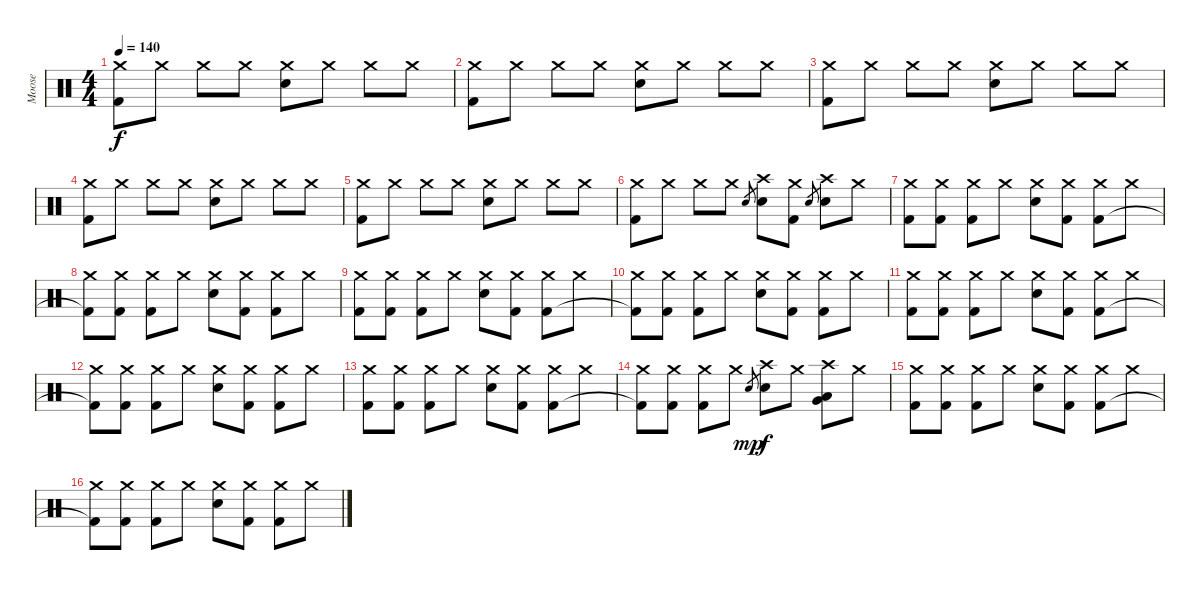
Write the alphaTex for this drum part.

\track ("Moose" "Moose") {instrument percussion}
\staff {score}
\articulation defaults
\ts (4 4)
\tempo 140
\clef neutral
\ks c
("Crash medium (hit)" "Kick (hit) 2").8{dy f} "Crash medium (hit)".8 "Crash medium (hit)".8 "Crash medium (hit)".8 ("Crash medium (hit)" "Snare (hit) 2").8 "Crash medium (hit)".8 "Crash medium (hit)".8 "Crash medium (hit)".8 |
("Crash medium (hit)" "Kick (hit) 2").8 "Crash medium (hit)".8 "Crash medium (hit)".8 "Crash medium (hit)".8 ("Crash medium (hit)" "Snare (hit) 2").8 "Crash medium (hit)".8 "Crash medium (hit)".8 "Crash medium (hit)".8 |
("Crash medium (hit)" "Kick (hit) 2").8 "Crash medium (hit)".8 "Crash medium (hit)".8 "Crash medium (hit)".8 ("Crash medium (hit)" "Snare (hit) 2").8 "Crash medium (hit)".8 "Crash medium (hit)".8 "Crash medium (hit)".8 |
("Crash medium (hit)" "Kick (hit) 2").8 "Crash medium (hit)".8 "Crash medium (hit)".8 "Crash medium (hit)".8 ("Crash medium (hit)" "Snare (hit) 2").8 "Crash medium (hit)".8 "Crash medium (hit)".8 "Crash medium (hit)".8 |
("Crash medium (hit)" "Kick (hit) 2").8 "Crash medium (hit)".8 "Crash medium (hit)".8 "Crash medium (hit)".8 ("Crash medium (hit)" "Snare (hit) 2").8 "Crash medium (hit)".8 "Crash medium (hit)".8 "Crash medium (hit)".8 |
("Crash medium (hit)" "Kick (hit) 2").8 "Crash medium (hit)".8 "Crash medium (hit)".8 "Crash medium (hit)".8 "Snare (hit) 2".8{gr} ("Crash high (hit)" "Snare (hit) 2").8 ("Crash medium (hit)" "Kick (hit) 2").8 "Snare (hit) 2".8{gr} ("Crash high (hit)" "Snare (hit) 2").8 "Crash medium (hit)".8 |
("Crash medium (hit)" "Kick (hit) 2").8 ("Crash medium (hit)" "Kick (hit) 2").8 ("Crash medium (hit)" "Kick (hit) 2").8 "Crash medium (hit)".8 ("Crash medium (hit)" "Snare (hit) 2").8 ("Crash medium (hit)" "Kick (hit) 2").8 ("Crash medium (hit)" "Kick (hit) 2").8 "Crash medium (hit)".8 |
("Crash medium (hit)" "Kick (hit) 2"{t}).8 ("Crash medium (hit)" "Kick (hit) 2").8 ("Crash medium (hit)" "Kick (hit) 2").8 "Crash medium (hit)".8 ("Crash medium (hit)" "Snare (hit) 2").8 ("Crash medium (hit)" "Kick (hit) 2").8 ("Crash medium (hit)" "Kick (hit) 2").8 "Crash medium (hit)".8 |
("Crash medium (hit)" "Kick (hit) 2").8 ("Crash medium (hit)" "Kick (hit) 2").8 ("Crash medium (hit)" "Kick (hit) 2").8 "Crash medium (hit)".8 ("Crash medium (hit)" "Snare (hit) 2").8 ("Crash medium (hit)" "Kick (hit) 2").8 ("Crash medium (hit)" "Kick (hit) 2").8 "Crash medium (hit)".8 |
("Crash medium (hit)" "Kick (hit) 2"{t}).8 ("Crash medium (hit)" "Kick (hit) 2").8 ("Crash medium (hit)" "Kick (hit) 2").8 "Crash medium (hit)".8 ("Crash medium (hit)" "Snare (hit) 2").8 ("Crash medium (hit)" "Kick (hit) 2").8 ("Crash medium (hit)" "Kick (hit) 2").8 "Crash medium (hit)".8 |
("Crash medium (hit)" "Kick (hit) 2").8 ("Crash medium (hit)" "Kick (hit) 2").8 ("Crash medium (hit)" "Kick (hit) 2").8 "Crash medium (hit)".8 ("Crash medium (hit)" "Snare (hit) 2").8 ("Crash medium (hit)" "Kick (hit) 2").8 ("Crash medium (hit)" "Kick (hit) 2").8 "Crash medium (hit)".8 |
("Crash medium (hit)" "Kick (hit) 2"{t}).8 ("Crash medium (hit)" "Kick (hit) 2").8 ("Crash medium (hit)" "Kick (hit) 2").8 "Crash medium (hit)".8 ("Crash medium (hit)" "Snare (hit) 2").8 ("Crash medium (hit)" "Kick (hit) 2").8 ("Crash medium (hit)" "Kick (hit) 2").8 "Crash medium (hit)".8 |
("Crash medium (hit)" "Kick (hit) 2").8 ("Crash medium (hit)" "Kick (hit) 2").8 ("Crash medium (hit)" "Kick (hit) 2").8 "Crash medium (hit)".8 ("Crash medium (hit)" "Snare (hit) 2").8 ("Crash medium (hit)" "Kick (hit) 2").8 ("Crash medium (hit)" "Kick (hit) 2").8 "Crash medium (hit)".8 |
("Crash medium (hit)" "Kick (hit) 2"{t}).8 ("Crash medium (hit)" "Kick (hit) 2").8 ("Crash medium (hit)" "Kick (hit) 2").8 "Crash medium (hit)".8 "Snare (hit) 2".8{gr dy mp} ("Crash high (hit)" "Snare (hit) 2").8{dy f} "Crash medium (hit)".8 ("Crash high (hit)" "Low Tom (hit)" "Very Low Tom (hit)").8 "Crash medium (hit)".8 |
("Crash medium (hit)" "Kick (hit) 2").8 ("Crash medium (hit)" "Kick (hit) 2").8 ("Crash medium (hit)" "Kick (hit) 2").8 "Crash medium (hit)".8 ("Crash medium (hit)" "Snare (hit) 2").8 ("Crash medium (hit)" "Kick (hit) 2").8 ("Crash medium (hit)" "Kick (hit) 2").8 "Crash medium (hit)".8 |
("Crash medium (hit)" "Kick (hit) 2"{t}).8 ("Crash medium (hit)" "Kick (hit) 2").8 ("Crash medium (hit)" "Kick (hit) 2").8 "Crash medium (hit)".8 ("Crash medium (hit)" "Snare (hit) 2").8 ("Crash medium (hit)" "Kick (hit) 2").8 ("Crash medium (hit)" "Kick (hit) 2").8 "Crash medium (hit)".8
